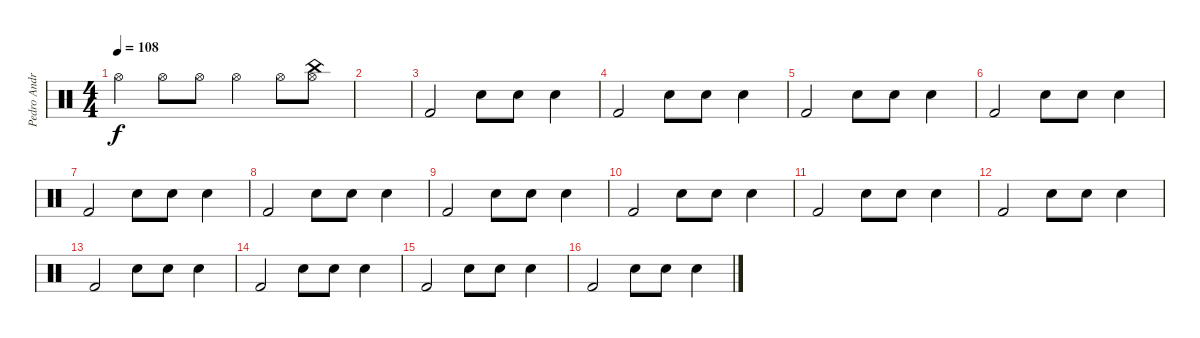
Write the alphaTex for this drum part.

\track ("Pedro Andreu" "Pedro Andr") {instrument percussion}
\staff {score}
\articulation defaults
\ts (4 4)
\tempo 108
\clef neutral
\ks c "Hi-Hat (open)".4{dy f} "Hi-Hat (open)".8 "Hi-Hat (open)".8 "Hi-Hat (open)".4 "Hi-Hat (open)".8
("Hi-Hat (open)" "China (hit)").8 |
|
"Kick (hit) 2".2 "Snare (hit) 2".8 "Snare (hit) 2".8 "Snare (hit) 2".4 |
"Kick (hit) 2".2 "Snare (hit) 2".8 "Snare (hit) 2".8 "Snare (hit) 2".4 |
"Kick (hit) 2".2 "Snare (hit) 2".8 "Snare (hit) 2".8 "Snare (hit) 2".4 |
"Kick (hit) 2".2 "Snare (hit) 2".8 "Snare (hit) 2".8 "Snare (hit) 2".4 |
"Kick (hit) 2".2 "Snare (hit) 2".8 "Snare (hit) 2".8 "Snare (hit) 2".4 |
"Kick (hit) 2".2 "Snare (hit) 2".8 "Snare (hit) 2".8 "Snare (hit) 2".4 |
"Kick (hit) 2".2 "Snare (hit) 2".8 "Snare (hit) 2".8 "Snare (hit) 2".4 |
"Kick (hit) 2".2 "Snare (hit) 2".8 "Snare (hit) 2".8 "Snare (hit) 2".4 |
"Kick (hit) 2".2 "Snare (hit) 2".8 "Snare (hit) 2".8 "Snare (hit) 2".4 |
"Kick (hit) 2".2 "Snare (hit) 2".8 "Snare (hit) 2".8 "Snare (hit) 2".4 |
"Kick (hit) 2".2 "Snare (hit) 2".8 "Snare (hit) 2".8 "Snare (hit) 2".4 |
"Kick (hit) 2".2 "Snare (hit) 2".8 "Snare (hit) 2".8 "Snare (hit) 2".4 |
"Kick (hit) 2".2 "Snare (hit) 2".8 "Snare (hit) 2".8 "Snare (hit) 2".4 |
"Kick (hit) 2".2 "Snare (hit) 2".8 "Snare (hit) 2".8 "Snare (hit) 2".4
